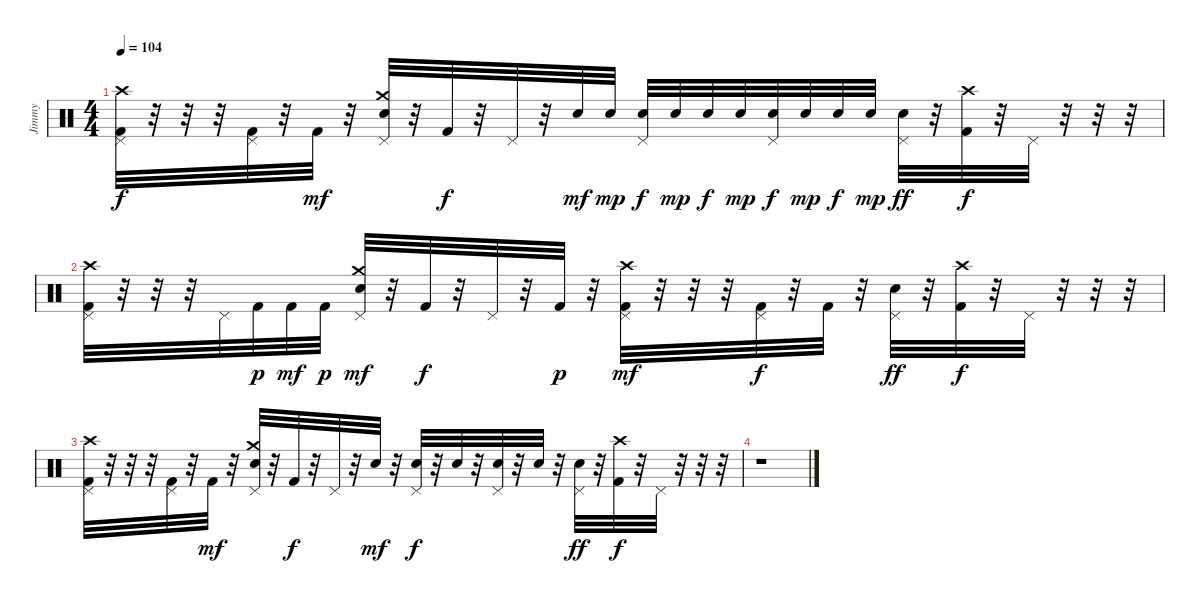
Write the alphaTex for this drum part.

\track ("Jimmy" "Jimmy") {instrument percussion}
\staff {score}
\articulation defaults
\ts (4 4)
\tempo 104
\clef neutral
\ks c
("Crash high (hit)" "Pedal Hi-Hat (hit)" "Kick (hit) 2").32{dy f} r.32 r.32 r.32 ("Pedal Hi-Hat (hit)" "Kick (hit) 2").32 r.32 "Kick (hit) 2".32{dy mf} r.32 ("Crash medium (hit)" "Pedal Hi-Hat (hit)" "Electric Snare (hit)").32 r.32 "Kick (hit) 2".32{dy f} r.32 "Pedal Hi-Hat (hit)".32 r.32 "Electric Snare (hit)".32{dy mf} "Electric Snare (hit)".32{dy mp} ("Pedal Hi-Hat (hit)" "Electric Snare (hit)").32{dy f} "Electric Snare (hit)".32{dy mp} "Electric Snare (hit)".32{dy f} "Electric Snare (hit)".32{dy mp} ("Pedal Hi-Hat (hit)" "Electric Snare (hit)").32{dy f} "Electric Snare (hit)".32{dy mp} "Electric Snare (hit)".32{dy f} "Electric Snare (hit)".32{dy mp} ("Pedal Hi-Hat (hit)" "Electric Snare (hit)").32{dy ff} r.32 ("Crash high (hit)" "Kick (hit) 2").32{dy f} r.32 "Pedal Hi-Hat (hit)".32 r.32 r.32 r.32 |
("Crash high (hit)" "Pedal Hi-Hat (hit)" "Kick (hit) 2").32 r.32 r.32 r.32 "Pedal Hi-Hat (hit)".32 "Kick (hit) 2".32{dy p} "Kick (hit) 2".32{dy mf} "Kick (hit) 2".32{dy p} ("Crash medium (hit)" "Pedal Hi-Hat (hit)" "Electric Snare (hit)").32{dy mf} r.32 "Kick (hit) 2".32{dy f} r.32 "Pedal Hi-Hat (hit)".32 r.32 "Kick (hit) 2".32{dy p} r.32 ("Crash high (hit)" "Pedal Hi-Hat (hit)" "Kick (hit) 2").32{dy mf} r.32 r.32 r.32 ("Pedal Hi-Hat (hit)" "Kick (hit) 2").32{dy f} r.32 "Kick (hit) 2".32 r.32 ("Pedal Hi-Hat (hit)" "Electric Snare (hit)").32{dy ff} r.32 ("Crash high (hit)" "Kick (hit) 2").32{dy f} r.32 "Pedal Hi-Hat (hit)".32 r.32 r.32 r.32 |
("Crash high (hit)" "Pedal Hi-Hat (hit)" "Kick (hit) 2").32 r.32 r.32 r.32 ("Pedal Hi-Hat (hit)" "Kick (hit) 2").32 r.32 "Kick (hit) 2".32{dy mf} r.32 ("Crash medium (hit)" "Pedal Hi-Hat (hit)" "Electric Snare (hit)").32 r.32 "Kick (hit) 2".32{dy f} r.32 "Pedal Hi-Hat (hit)".32 r.32 "Electric Snare (hit)".32{dy mf} r.32 ("Pedal Hi-Hat (hit)" "Electric Snare (hit)").32{dy f} r.32 "Electric Snare (hit)".32 r.32 ("Pedal Hi-Hat (hit)" "Electric Snare (hit)").32 r.32 "Electric Snare (hit)".32 r.32 ("Pedal Hi-Hat (hit)" "Electric Snare (hit)").32{dy ff} r.32 ("Crash high (hit)" "Kick (hit) 2").32{dy f} r.32 "Pedal Hi-Hat (hit)".32 r.32 r.32 r.32 |
r.1
